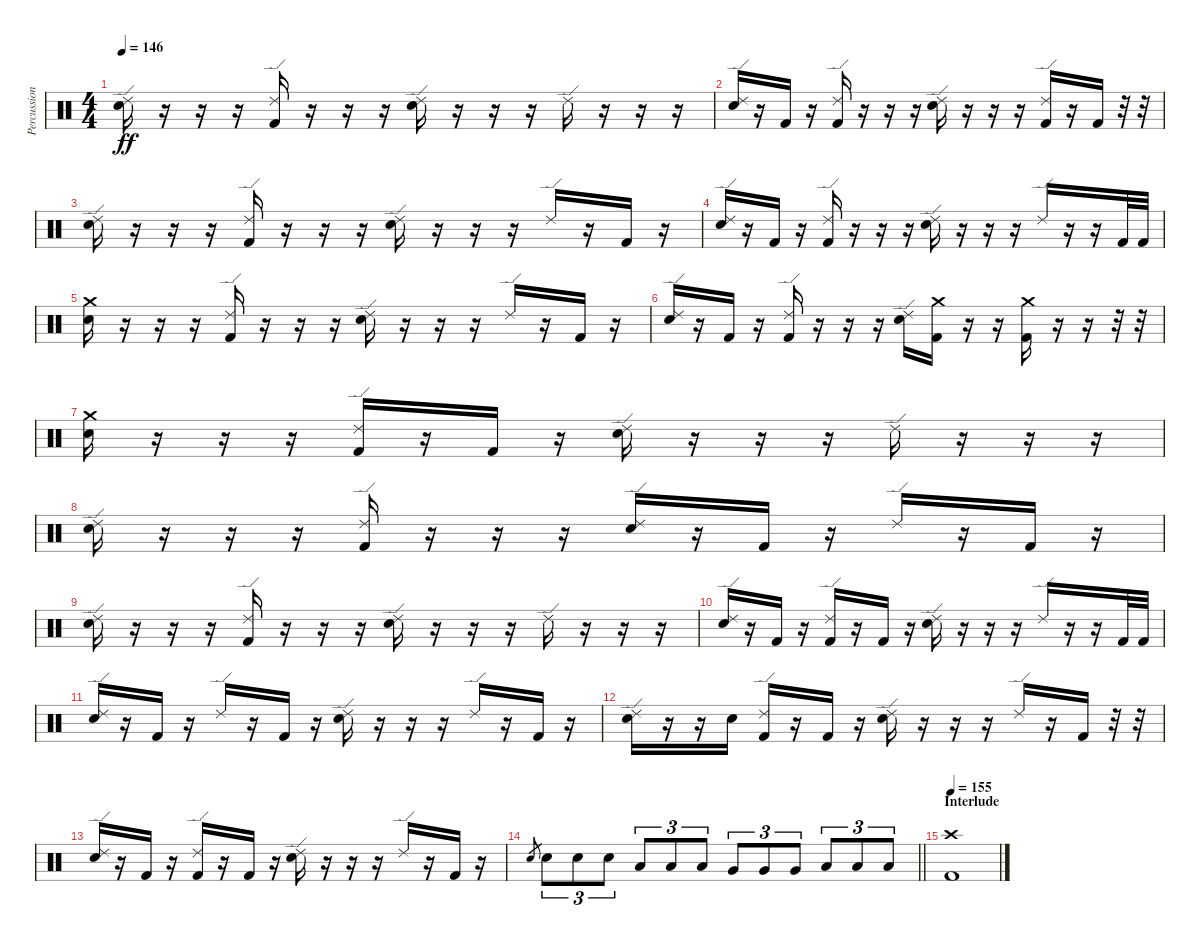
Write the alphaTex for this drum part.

\track ("Percussion" "Percussion") {instrument percussion}
\staff {score}
\articulation defaults
\ts (4 4)
\tempo 146
\clef neutral
\ks c
("Ride (edge) 2" "Electric Snare (hit)").16{dy ff} r.16 r.16 r.16 ("Ride (edge) 2" "Kick (hit) 2").16 r.16 r.16 r.16 ("Ride (edge) 2" "Electric Snare (hit)").16 r.16 r.16 r.16 "Ride (edge) 2".16 r.16 r.16 r.16 |
("Ride (edge) 2" "Electric Snare (hit)").16 r.16 "Kick (hit) 2".16 r.16 ("Ride (edge) 2" "Kick (hit) 2").16 r.16 r.16 r.16 ("Ride (edge) 2" "Electric Snare (hit)").16 r.16 r.16 r.16 ("Ride (edge) 2" "Kick (hit) 2").16 r.16 "Kick (hit) 2".16 r.32 r.32 |
("Ride (edge) 2" "Electric Snare (hit)").16 r.16 r.16 r.16 ("Ride (edge) 2" "Kick (hit) 2").16 r.16 r.16 r.16 ("Ride (edge) 2" "Electric Snare (hit)").16 r.16 r.16 r.16 "Ride (edge) 2".16 r.16 "Kick (hit) 2".16 r.16 |
("Ride (edge) 2" "Electric Snare (hit)").16 r.16 "Kick (hit) 2".16 r.16 ("Ride (edge) 2" "Kick (hit) 2").16 r.16 r.16 r.16 ("Ride (edge) 2" "Electric Snare (hit)").16 r.16 r.16 r.16 "Ride (edge) 2".16 r.16 r.16 "Kick (hit) 2".32 "Kick (hit) 2".32 |
("Crash medium (hit)" "Electric Snare (hit)").16 r.16 r.16 r.16 ("Ride (edge) 2" "Kick (hit) 2").16 r.16 r.16 r.16 ("Ride (edge) 2" "Electric Snare (hit)").16 r.16 r.16 r.16 "Ride (edge) 2".16 r.16 "Kick (hit) 2".16 r.16 |
("Ride (edge) 2" "Electric Snare (hit)").16 r.16 "Kick (hit) 2".16 r.16 ("Ride (edge) 2" "Kick (hit) 2").16 r.16 r.16 r.16 ("Ride (edge) 2" "Electric Snare (hit)").16 ("Crash medium (hit)" "Kick (hit) 2").16 r.16 r.16 ("Crash medium (hit)" "Kick (hit) 2").16 r.16 r.16 r.32 r.32 |
("Crash medium (hit)" "Electric Snare (hit)").16 r.16 r.16 r.16 ("Ride (edge) 2" "Kick (hit) 2").16 r.16 "Kick (hit) 2".16 r.16 ("Ride (edge) 2" "Electric Snare (hit)").16 r.16 r.16 r.16 "Ride (edge) 2".16 r.16 r.16 r.16 |
("Ride (edge) 2" "Electric Snare (hit)").16 r.16 r.16 r.16 ("Ride (edge) 2" "Kick (hit) 2").16 r.16 r.16 r.16 ("Ride (edge) 2" "Electric Snare (hit)").16 r.16 "Kick (hit) 2".16 r.16 "Ride (edge) 2".16 r.16 "Kick (hit) 2".16 r.16 |
("Ride (edge) 2" "Electric Snare (hit)").16 r.16 r.16 r.16 ("Ride (edge) 2" "Kick (hit) 2").16 r.16 r.16 r.16 ("Ride (edge) 2" "Electric Snare (hit)").16 r.16 r.16 r.16 "Ride (edge) 2".16 r.16 r.16 r.16 |
("Ride (edge) 2" "Electric Snare (hit)").16 r.16 "Kick (hit) 2".16 r.16 ("Ride (edge) 2" "Kick (hit) 2").16 r.16 "Kick (hit) 2".16 r.16 ("Ride (edge) 2" "Electric Snare (hit)").16 r.16 r.16 r.16 "Ride (edge) 2".16 r.16 r.16 "Kick (hit) 2".32 "Kick (hit) 2".32 |
("Ride (edge) 2" "Electric Snare (hit)").16 r.16 "Kick (hit) 2".16 r.16 "Ride (edge) 2".16 r.16 "Kick (hit) 2".16 r.16 ("Ride (edge) 2" "Electric Snare (hit)").16 r.16 r.16 r.16 "Ride (edge) 2".16 r.16 "Kick (hit) 2".16 r.16 |
("Ride (edge) 2" "Electric Snare (hit)").16 r.16 r.16 "Electric Snare (hit)".16 ("Ride (edge) 2" "Kick (hit) 2").16 r.16 "Kick (hit) 2".16 r.16 ("Ride (edge) 2" "Electric Snare (hit)").16 r.16 r.16 r.16 "Ride (edge) 2".16 r.16 "Kick (hit) 2".16 r.32 r.32 |
("Ride (edge) 2" "Electric Snare (hit)").16 r.16 "Kick (hit) 2".16 r.16 ("Ride (edge) 2" "Kick (hit) 2").16 r.16 "Kick (hit) 2".16 r.16 ("Ride (edge) 2" "Electric Snare (hit)").16 r.16 r.16 r.16 "Ride (edge) 2".16 r.16 "Kick (hit) 2".16 r.16 |
\barLineRight lightlight "Electric Snare (hit)".8{gr} "Electric Snare (hit)".8{tu (3 2)} "Electric Snare (hit)".8{tu (3 2)} "Electric Snare (hit)".8{tu (3 2)} "Low Tom (hit)".8{tu (3 2)} "Low Tom (hit)".8{tu (3 2)} "Low Tom (hit)".8{tu (3 2)} "Very Low Tom (hit)".8{tu (3 2)} "Very Low Tom (hit)".8{tu (3 2)} "Very Low Tom (hit)".8{tu (3 2)} "Low Floor Tom (hit)".8{tu (3 2)} "Low Floor Tom (hit)".8{tu (3 2)} "Low Floor Tom (hit)".8{tu (3 2)}
|
\section ("" "Interlude")
\tempo 155
("Crash high (hit)" "Kick (hit) 2").1
